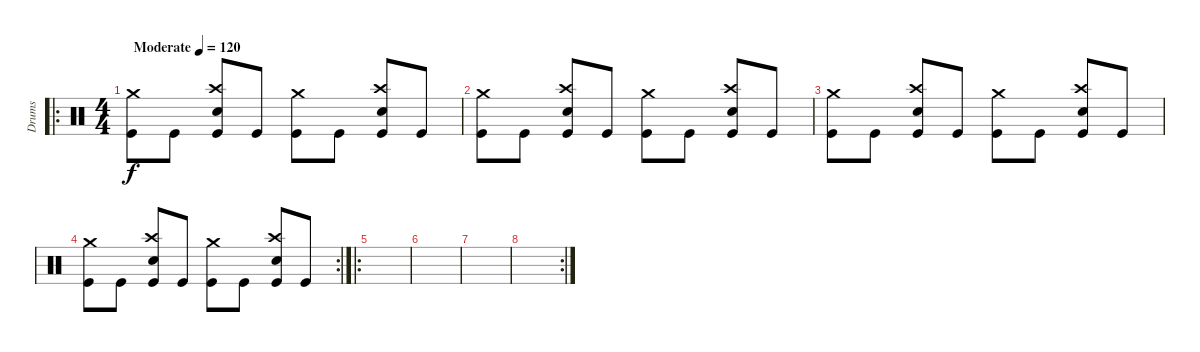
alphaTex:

\track ("Drums" "Drums") {instrument percussion}
\staff {score}
\articulation defaults
\ro
\ts (4 4)
\tempo (120 "Moderate")
\clef neutral
\ks c
("Crash medium (hit)" "Kick (hit)").8{dy f} "Kick (hit)".8 ("Crash high (hit)" "Snare (hit) 2" "Kick (hit)").8 "Kick (hit)".8 ("Crash medium (hit)" "Kick (hit)").8 "Kick (hit)".8 ("Crash high (hit)" "Snare (hit) 2" "Kick (hit)").8 "Kick (hit)".8 |
("Crash medium (hit)" "Kick (hit)").8 "Kick (hit)".8 ("Crash high (hit)" "Snare (hit) 2" "Kick (hit)").8 "Kick (hit)".8 ("Crash medium (hit)" "Kick (hit)").8 "Kick (hit)".8 ("Crash high (hit)" "Snare (hit) 2" "Kick (hit)").8 "Kick (hit)".8 |
("Crash medium (hit)" "Kick (hit)").8 "Kick (hit)".8 ("Crash high (hit)" "Snare (hit) 2" "Kick (hit)").8 "Kick (hit)".8 ("Crash medium (hit)" "Kick (hit)").8 "Kick (hit)".8 ("Crash high (hit)" "Snare (hit) 2" "Kick (hit)").8 "Kick (hit)".8 |
\rc 2
("Crash medium (hit)" "Kick (hit)").8 "Kick (hit)".8 ("Crash high (hit)" "Snare (hit) 2" "Kick (hit)").8 "Kick (hit)".8 ("Crash medium (hit)" "Kick (hit)").8 "Kick (hit)".8 ("Crash high (hit)" "Snare (hit) 2" "Kick (hit)").8 "Kick (hit)".8 |
\ro
|
|
|
\rc 2
